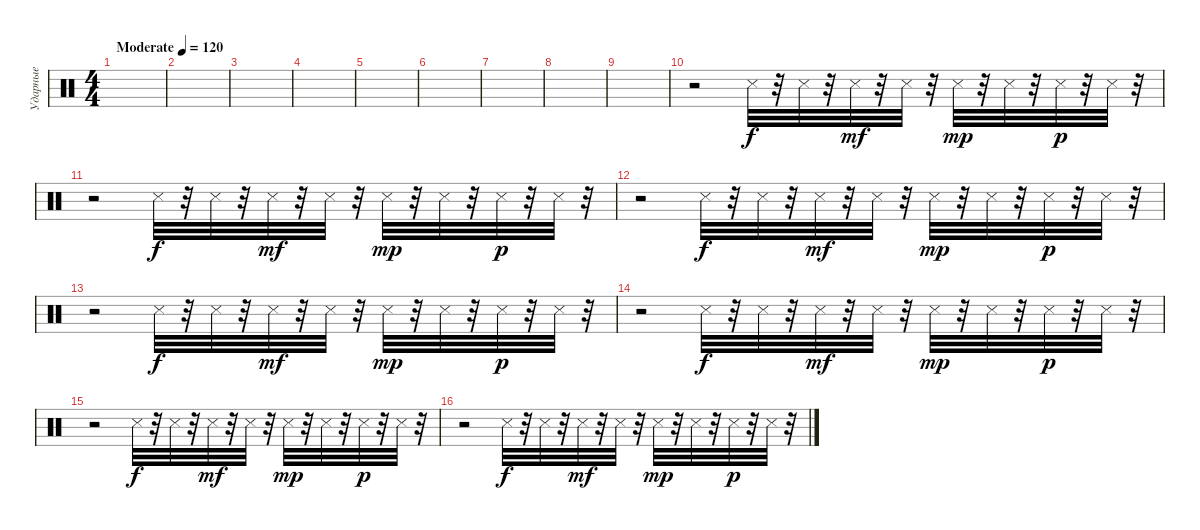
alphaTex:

\track ("Ударные" "Ударные") {instrument percussion}
\staff {score}
\articulation defaults
\ts (4 4)
\tempo (120 "Moderate")
\clef neutral
\ks c
|
|
|
|
|
|
|
|
|
r.2 "Snare (side stick) 3".32 r.32 "Snare (side stick) 3".32 r.32 "Snare (side stick) 3".32{dy mf} r.32 "Snare (side stick) 3".32 r.32 "Snare (side stick) 3".32{dy mp} r.32 "Snare (side stick) 3".32 r.32 "Snare (side stick) 3".32{dy p} r.32 "Snare (side stick) 3".32 r.32 |
r.2 "Snare (side stick) 3".32{dy f} r.32 "Snare (side stick) 3".32 r.32 "Snare (side stick) 3".32{dy mf} r.32 "Snare (side stick) 3".32 r.32 "Snare (side stick) 3".32{dy mp} r.32 "Snare (side stick) 3".32 r.32 "Snare (side stick) 3".32{dy p} r.32 "Snare (side stick) 3".32 r.32 |
r.2 "Snare (side stick) 3".32{dy f} r.32 "Snare (side stick) 3".32 r.32 "Snare (side stick) 3".32{dy mf} r.32 "Snare (side stick) 3".32 r.32 "Snare (side stick) 3".32{dy mp} r.32 "Snare (side stick) 3".32 r.32 "Snare (side stick) 3".32{dy p} r.32 "Snare (side stick) 3".32 r.32 |
r.2 "Snare (side stick) 3".32{dy f} r.32 "Snare (side stick) 3".32 r.32 "Snare (side stick) 3".32{dy mf} r.32 "Snare (side stick) 3".32 r.32 "Snare (side stick) 3".32{dy mp} r.32 "Snare (side stick) 3".32 r.32 "Snare (side stick) 3".32{dy p} r.32 "Snare (side stick) 3".32 r.32 |
r.2 "Snare (side stick) 3".32{dy f} r.32 "Snare (side stick) 3".32 r.32 "Snare (side stick) 3".32{dy mf} r.32 "Snare (side stick) 3".32 r.32 "Snare (side stick) 3".32{dy mp} r.32 "Snare (side stick) 3".32 r.32 "Snare (side stick) 3".32{dy p} r.32 "Snare (side stick) 3".32 r.32 |
r.2 "Snare (side stick) 3".32{dy f} r.32 "Snare (side stick) 3".32 r.32 "Snare (side stick) 3".32{dy mf} r.32 "Snare (side stick) 3".32 r.32 "Snare (side stick) 3".32{dy mp} r.32 "Snare (side stick) 3".32 r.32 "Snare (side stick) 3".32{dy p} r.32 "Snare (side stick) 3".32 r.32 |
r.2 "Snare (side stick) 3".32{dy f} r.32 "Snare (side stick) 3".32 r.32 "Snare (side stick) 3".32{dy mf} r.32 "Snare (side stick) 3".32 r.32 "Snare (side stick) 3".32{dy mp} r.32 "Snare (side stick) 3".32 r.32 "Snare (side stick) 3".32{dy p} r.32 "Snare (side stick) 3".32 r.32
